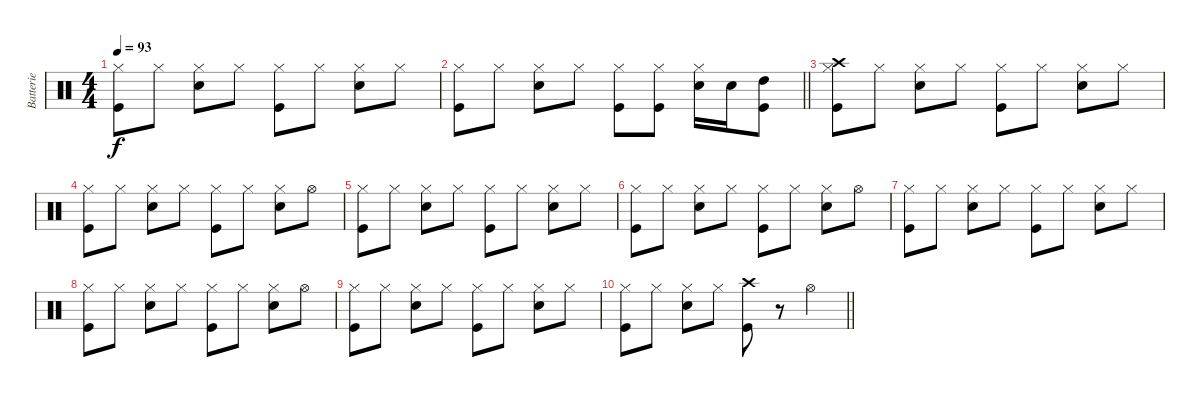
\track ("Batterie" "Batterie") {instrument percussion}
\staff {score}
\articulation defaults
\ts (4 4)
\tempo 93
\clef neutral
\ks c
("Hi-Hat (closed)" "Kick (hit)").8{dy f} "Hi-Hat (closed)".8 ("Hi-Hat (closed)" "Snare (hit) 2").8 "Hi-Hat (closed)".8 ("Hi-Hat (closed)" "Kick (hit)").8 "Hi-Hat (closed)".8 ("Hi-Hat (closed)" "Snare (hit) 2").8 "Hi-Hat (closed)".8 |
\barLineRight lightlight
("Hi-Hat (closed)" "Kick (hit)").8 "Hi-Hat (closed)".8 ("Hi-Hat (closed)" "Snare (hit) 2").8 "Hi-Hat (closed)".8 ("Hi-Hat (closed)" "Kick (hit)").8 ("Hi-Hat (closed)" "Kick (hit)").8 ("Hi-Hat (closed)" "Snare (hit) 2").16 "Snare (hit) 2".16 ("High Tom (hit)" "Kick (hit)").8 |
("Crash high (hit)" "Hi-Hat (closed)" "Kick (hit)").8 "Hi-Hat (closed)".8 ("Hi-Hat (closed)" "Snare (hit) 2").8 "Hi-Hat (closed)".8 ("Hi-Hat (closed)" "Kick (hit)").8 "Hi-Hat (closed)".8 ("Hi-Hat (closed)" "Snare (hit) 2").8 "Hi-Hat (closed)".8 |
("Hi-Hat (closed)" "Kick (hit)").8 "Hi-Hat (closed)".8 ("Hi-Hat (closed)" "Snare (hit) 2").8 "Hi-Hat (closed)".8 ("Hi-Hat (closed)" "Kick (hit)").8 "Hi-Hat (closed)".8 ("Hi-Hat (closed)" "Snare (hit) 2").8 "Hi-Hat (open)".8 |
("Hi-Hat (closed)" "Kick (hit)").8 "Hi-Hat (closed)".8 ("Hi-Hat (closed)" "Snare (hit) 2").8 "Hi-Hat (closed)".8 ("Hi-Hat (closed)" "Kick (hit)").8 "Hi-Hat (closed)".8 ("Hi-Hat (closed)" "Snare (hit) 2").8 "Hi-Hat (closed)".8 |
("Hi-Hat (closed)" "Kick (hit)").8 "Hi-Hat (closed)".8 ("Hi-Hat (closed)" "Snare (hit) 2").8 "Hi-Hat (closed)".8 ("Hi-Hat (closed)" "Kick (hit)").8 "Hi-Hat (closed)".8 ("Hi-Hat (closed)" "Snare (hit) 2").8 "Hi-Hat (open)".8 |
("Hi-Hat (closed)" "Kick (hit)").8 "Hi-Hat (closed)".8 ("Hi-Hat (closed)" "Snare (hit) 2").8 "Hi-Hat (closed)".8 ("Hi-Hat (closed)" "Kick (hit)").8 "Hi-Hat (closed)".8 ("Hi-Hat (closed)" "Snare (hit) 2").8 "Hi-Hat (closed)".8 |
("Hi-Hat (closed)" "Kick (hit)").8 "Hi-Hat (closed)".8 ("Hi-Hat (closed)" "Snare (hit) 2").8 "Hi-Hat (closed)".8 ("Hi-Hat (closed)" "Kick (hit)").8 "Hi-Hat (closed)".8 ("Hi-Hat (closed)" "Snare (hit) 2").8 "Hi-Hat (open)".8 |
("Hi-Hat (closed)" "Kick (hit)").8 "Hi-Hat (closed)".8 ("Hi-Hat (closed)" "Snare (hit) 2").8 "Hi-Hat (closed)".8 ("Hi-Hat (closed)" "Kick (hit)").8 "Hi-Hat (closed)".8 ("Hi-Hat (closed)" "Snare (hit) 2").8 "Hi-Hat (closed)".8 |
\barLineRight lightlight
("Hi-Hat (closed)" "Kick (hit)").8 "Hi-Hat (closed)".8 ("Hi-Hat (closed)" "Snare (hit) 2").8 "Hi-Hat (closed)".8 ("Crash high (hit)" "Kick (hit)").8 r.8 "Hi-Hat (open)".4
